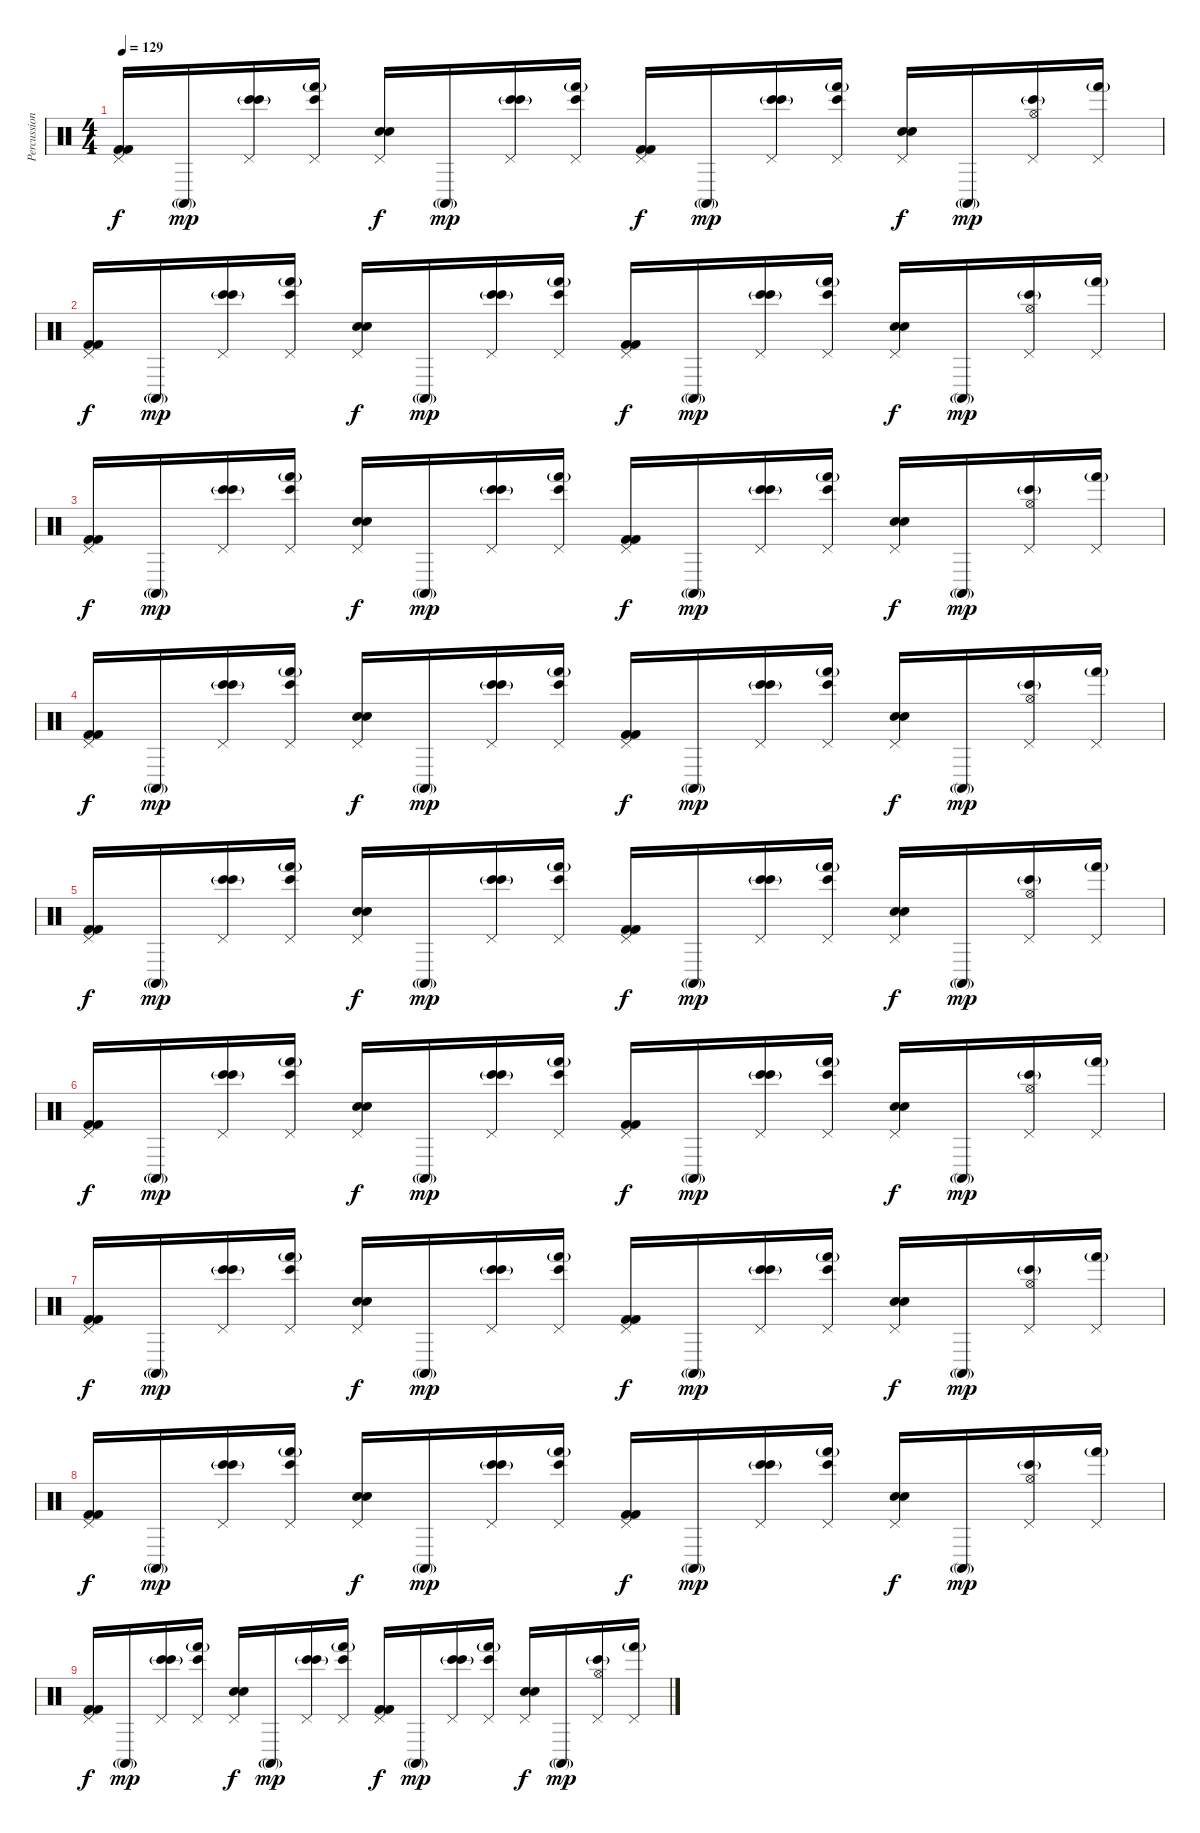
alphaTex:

\track ("Percussion" "Percussion") {instrument percussion}
\staff {score}
\articulation defaults
\ts (4 4)
\tempo 129
\clef neutral
\ks c
("Pedal Hi-Hat (hit)" "Kick (hit) 2" "Kick (hit) 2").16{dy f} "Conga high (mute)"{g}.16{dy mp} ("Pedal Hi-Hat (hit)" "Bongo High (hit)" "Bongo High (hit)"{g}).16 ("Pedal Hi-Hat (hit)" "Bongo High (hit)" "Hand (hit)"{g}).16 ("Pedal Hi-Hat (hit)" "Electric Snare (hit)" "Snare (hit) 2").16{dy f} "Conga high (mute)"{g}.16{dy mp} ("Pedal Hi-Hat (hit)" "Bongo High (hit)" "Bongo High (hit)"{g}).16 ("Pedal Hi-Hat (hit)" "Bongo High (hit)" "Hand (hit)"{g}).16 ("Pedal Hi-Hat (hit)" "Kick (hit) 2" "Kick (hit) 2").16{dy f} "Conga high (mute)"{g}.16{dy mp} ("Pedal Hi-Hat (hit)" "Bongo High (hit)" "Bongo High (hit)"{g}).16 ("Pedal Hi-Hat (hit)" "Bongo High (hit)" "Hand (hit)"{g}).16 ("Pedal Hi-Hat (hit)" "Electric Snare (hit)" "Snare (hit) 2").16{dy f} "Conga high (mute)"{g}.16{dy mp} ("Pedal Hi-Hat (hit)" "Hi-Hat (open)" "Bongo High (hit)"{g}).16 ("Pedal Hi-Hat (hit)" "Hand (hit)"{g}).16 |
("Pedal Hi-Hat (hit)" "Kick (hit) 2" "Kick (hit) 2").16{dy f} "Conga high (mute)"{g}.16{dy mp} ("Pedal Hi-Hat (hit)" "Bongo High (hit)" "Bongo High (hit)"{g}).16 ("Pedal Hi-Hat (hit)" "Bongo High (hit)" "Hand (hit)"{g}).16 ("Pedal Hi-Hat (hit)" "Electric Snare (hit)" "Snare (hit) 2").16{dy f} "Conga high (mute)"{g}.16{dy mp} ("Pedal Hi-Hat (hit)" "Bongo High (hit)" "Bongo High (hit)"{g}).16 ("Pedal Hi-Hat (hit)" "Bongo High (hit)" "Hand (hit)"{g}).16 ("Pedal Hi-Hat (hit)" "Kick (hit) 2" "Kick (hit) 2").16{dy f} "Conga high (mute)"{g}.16{dy mp} ("Pedal Hi-Hat (hit)" "Bongo High (hit)" "Bongo High (hit)"{g}).16 ("Pedal Hi-Hat (hit)" "Bongo High (hit)" "Hand (hit)"{g}).16 ("Pedal Hi-Hat (hit)" "Electric Snare (hit)" "Snare (hit) 2").16{dy f} "Conga high (mute)"{g}.16{dy mp} ("Pedal Hi-Hat (hit)" "Hi-Hat (open)" "Bongo High (hit)"{g}).16 ("Pedal Hi-Hat (hit)" "Hand (hit)"{g}).16 |
("Pedal Hi-Hat (hit)" "Kick (hit) 2" "Kick (hit) 2").16{dy f} "Conga high (mute)"{g}.16{dy mp} ("Pedal Hi-Hat (hit)" "Bongo High (hit)" "Bongo High (hit)"{g}).16 ("Pedal Hi-Hat (hit)" "Bongo High (hit)" "Hand (hit)"{g}).16 ("Pedal Hi-Hat (hit)" "Electric Snare (hit)" "Snare (hit) 2").16{dy f} "Conga high (mute)"{g}.16{dy mp} ("Pedal Hi-Hat (hit)" "Bongo High (hit)" "Bongo High (hit)"{g}).16 ("Pedal Hi-Hat (hit)" "Bongo High (hit)" "Hand (hit)"{g}).16 ("Pedal Hi-Hat (hit)" "Kick (hit) 2" "Kick (hit) 2").16{dy f} "Conga high (mute)"{g}.16{dy mp} ("Pedal Hi-Hat (hit)" "Bongo High (hit)" "Bongo High (hit)"{g}).16 ("Pedal Hi-Hat (hit)" "Bongo High (hit)" "Hand (hit)"{g}).16 ("Pedal Hi-Hat (hit)" "Electric Snare (hit)" "Snare (hit) 2").16{dy f} "Conga high (mute)"{g}.16{dy mp} ("Pedal Hi-Hat (hit)" "Hi-Hat (open)" "Bongo High (hit)"{g}).16 ("Pedal Hi-Hat (hit)" "Hand (hit)"{g}).16 |
("Pedal Hi-Hat (hit)" "Kick (hit) 2" "Kick (hit) 2").16{dy f} "Conga high (mute)"{g}.16{dy mp} ("Pedal Hi-Hat (hit)" "Bongo High (hit)" "Bongo High (hit)"{g}).16 ("Pedal Hi-Hat (hit)" "Bongo High (hit)" "Hand (hit)"{g}).16 ("Pedal Hi-Hat (hit)" "Electric Snare (hit)" "Snare (hit) 2").16{dy f} "Conga high (mute)"{g}.16{dy mp} ("Pedal Hi-Hat (hit)" "Bongo High (hit)" "Bongo High (hit)"{g}).16 ("Pedal Hi-Hat (hit)" "Bongo High (hit)" "Hand (hit)"{g}).16 ("Pedal Hi-Hat (hit)" "Kick (hit) 2" "Kick (hit) 2").16{dy f} "Conga high (mute)"{g}.16{dy mp} ("Pedal Hi-Hat (hit)" "Bongo High (hit)" "Bongo High (hit)"{g}).16 ("Pedal Hi-Hat (hit)" "Bongo High (hit)" "Hand (hit)"{g}).16 ("Pedal Hi-Hat (hit)" "Electric Snare (hit)" "Snare (hit) 2").16{dy f} "Conga high (mute)"{g}.16{dy mp} ("Pedal Hi-Hat (hit)" "Hi-Hat (open)" "Bongo High (hit)"{g}).16 ("Pedal Hi-Hat (hit)" "Hand (hit)"{g}).16 |
("Pedal Hi-Hat (hit)" "Kick (hit) 2" "Kick (hit) 2").16{dy f} "Conga high (mute)"{g}.16{dy mp} ("Pedal Hi-Hat (hit)" "Bongo High (hit)" "Bongo High (hit)"{g}).16 ("Pedal Hi-Hat (hit)" "Bongo High (hit)" "Hand (hit)"{g}).16 ("Pedal Hi-Hat (hit)" "Electric Snare (hit)" "Snare (hit) 2").16{dy f} "Conga high (mute)"{g}.16{dy mp} ("Pedal Hi-Hat (hit)" "Bongo High (hit)" "Bongo High (hit)"{g}).16 ("Pedal Hi-Hat (hit)" "Bongo High (hit)" "Hand (hit)"{g}).16 ("Pedal Hi-Hat (hit)" "Kick (hit) 2" "Kick (hit) 2").16{dy f} "Conga high (mute)"{g}.16{dy mp} ("Pedal Hi-Hat (hit)" "Bongo High (hit)" "Bongo High (hit)"{g}).16 ("Pedal Hi-Hat (hit)" "Bongo High (hit)" "Hand (hit)"{g}).16 ("Pedal Hi-Hat (hit)" "Electric Snare (hit)" "Snare (hit) 2").16{dy f} "Conga high (mute)"{g}.16{dy mp} ("Pedal Hi-Hat (hit)" "Hi-Hat (open)" "Bongo High (hit)"{g}).16 ("Pedal Hi-Hat (hit)" "Hand (hit)"{g}).16 |
("Pedal Hi-Hat (hit)" "Kick (hit) 2" "Kick (hit) 2").16{dy f} "Conga high (mute)"{g}.16{dy mp} ("Pedal Hi-Hat (hit)" "Bongo High (hit)" "Bongo High (hit)"{g}).16 ("Pedal Hi-Hat (hit)" "Bongo High (hit)" "Hand (hit)"{g}).16 ("Pedal Hi-Hat (hit)" "Electric Snare (hit)" "Snare (hit) 2").16{dy f} "Conga high (mute)"{g}.16{dy mp} ("Pedal Hi-Hat (hit)" "Bongo High (hit)" "Bongo High (hit)"{g}).16 ("Pedal Hi-Hat (hit)" "Bongo High (hit)" "Hand (hit)"{g}).16 ("Pedal Hi-Hat (hit)" "Kick (hit) 2" "Kick (hit) 2").16{dy f} "Conga high (mute)"{g}.16{dy mp} ("Pedal Hi-Hat (hit)" "Bongo High (hit)" "Bongo High (hit)"{g}).16 ("Pedal Hi-Hat (hit)" "Bongo High (hit)" "Hand (hit)"{g}).16 ("Pedal Hi-Hat (hit)" "Electric Snare (hit)" "Snare (hit) 2").16{dy f} "Conga high (mute)"{g}.16{dy mp} ("Pedal Hi-Hat (hit)" "Hi-Hat (open)" "Bongo High (hit)"{g}).16 ("Pedal Hi-Hat (hit)" "Hand (hit)"{g}).16 |
("Pedal Hi-Hat (hit)" "Kick (hit) 2" "Kick (hit) 2").16{dy f} "Conga high (mute)"{g}.16{dy mp} ("Pedal Hi-Hat (hit)" "Bongo High (hit)" "Bongo High (hit)"{g}).16 ("Pedal Hi-Hat (hit)" "Bongo High (hit)" "Hand (hit)"{g}).16 ("Pedal Hi-Hat (hit)" "Electric Snare (hit)" "Snare (hit) 2").16{dy f} "Conga high (mute)"{g}.16{dy mp} ("Pedal Hi-Hat (hit)" "Bongo High (hit)" "Bongo High (hit)"{g}).16 ("Pedal Hi-Hat (hit)" "Bongo High (hit)" "Hand (hit)"{g}).16 ("Pedal Hi-Hat (hit)" "Kick (hit) 2" "Kick (hit) 2").16{dy f} "Conga high (mute)"{g}.16{dy mp} ("Pedal Hi-Hat (hit)" "Bongo High (hit)" "Bongo High (hit)"{g}).16 ("Pedal Hi-Hat (hit)" "Bongo High (hit)" "Hand (hit)"{g}).16 ("Pedal Hi-Hat (hit)" "Electric Snare (hit)" "Snare (hit) 2").16{dy f} "Conga high (mute)"{g}.16{dy mp} ("Pedal Hi-Hat (hit)" "Hi-Hat (open)" "Bongo High (hit)"{g}).16 ("Pedal Hi-Hat (hit)" "Hand (hit)"{g}).16 |
("Pedal Hi-Hat (hit)" "Kick (hit) 2" "Kick (hit) 2").16{dy f} "Conga high (mute)"{g}.16{dy mp} ("Pedal Hi-Hat (hit)" "Bongo High (hit)" "Bongo High (hit)"{g}).16 ("Pedal Hi-Hat (hit)" "Bongo High (hit)" "Hand (hit)"{g}).16 ("Pedal Hi-Hat (hit)" "Electric Snare (hit)" "Snare (hit) 2").16{dy f} "Conga high (mute)"{g}.16{dy mp} ("Pedal Hi-Hat (hit)" "Bongo High (hit)" "Bongo High (hit)"{g}).16 ("Pedal Hi-Hat (hit)" "Bongo High (hit)" "Hand (hit)"{g}).16 ("Pedal Hi-Hat (hit)" "Kick (hit) 2" "Kick (hit) 2").16{dy f} "Conga high (mute)"{g}.16{dy mp} ("Pedal Hi-Hat (hit)" "Bongo High (hit)" "Bongo High (hit)"{g}).16 ("Pedal Hi-Hat (hit)" "Bongo High (hit)" "Hand (hit)"{g}).16 ("Pedal Hi-Hat (hit)" "Electric Snare (hit)" "Snare (hit) 2").16{dy f} "Conga high (mute)"{g}.16{dy mp} ("Pedal Hi-Hat (hit)" "Hi-Hat (open)" "Bongo High (hit)"{g}).16 ("Pedal Hi-Hat (hit)" "Hand (hit)"{g}).16 |
("Pedal Hi-Hat (hit)" "Kick (hit) 2" "Kick (hit) 2").16{dy f} "Conga high (mute)"{g}.16{dy mp} ("Pedal Hi-Hat (hit)" "Bongo High (hit)" "Bongo High (hit)"{g}).16 ("Pedal Hi-Hat (hit)" "Bongo High (hit)" "Hand (hit)"{g}).16 ("Pedal Hi-Hat (hit)" "Electric Snare (hit)" "Snare (hit) 2").16{dy f} "Conga high (mute)"{g}.16{dy mp} ("Pedal Hi-Hat (hit)" "Bongo High (hit)" "Bongo High (hit)"{g}).16 ("Pedal Hi-Hat (hit)" "Bongo High (hit)" "Hand (hit)"{g}).16 ("Pedal Hi-Hat (hit)" "Kick (hit) 2" "Kick (hit) 2").16{dy f} "Conga high (mute)"{g}.16{dy mp} ("Pedal Hi-Hat (hit)" "Bongo High (hit)" "Bongo High (hit)"{g}).16 ("Pedal Hi-Hat (hit)" "Bongo High (hit)" "Hand (hit)"{g}).16 ("Pedal Hi-Hat (hit)" "Electric Snare (hit)" "Snare (hit) 2").16{dy f} "Conga high (mute)"{g}.16{dy mp} ("Pedal Hi-Hat (hit)" "Hi-Hat (open)" "Bongo High (hit)"{g}).16 ("Pedal Hi-Hat (hit)" "Hand (hit)"{g}).16
